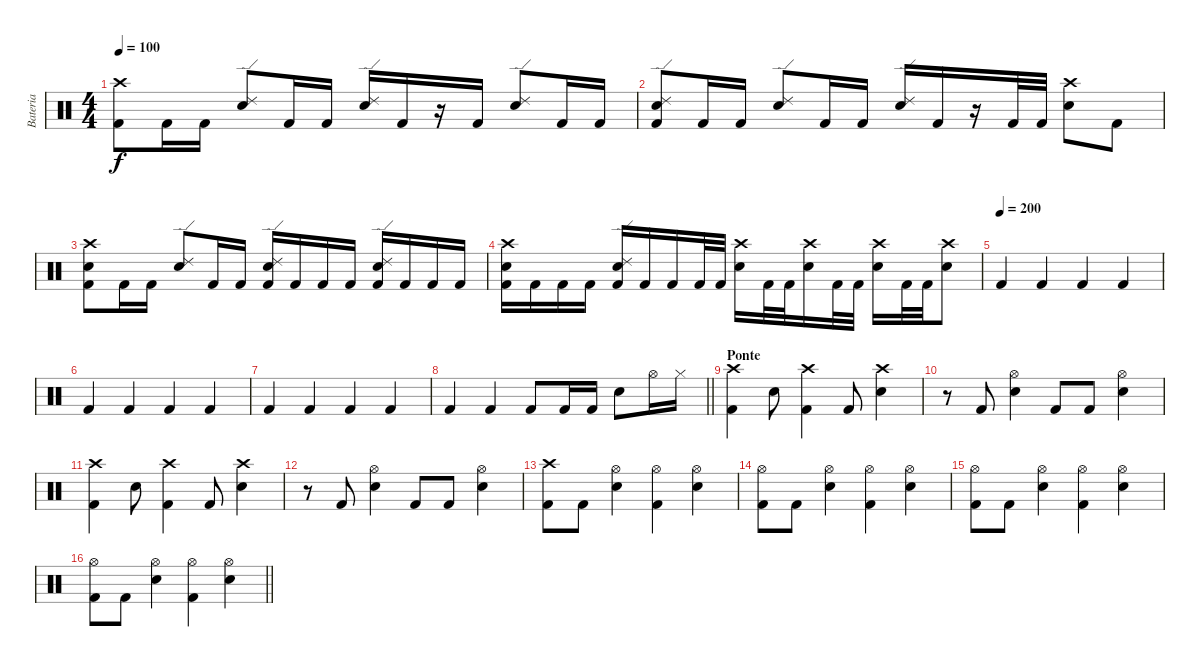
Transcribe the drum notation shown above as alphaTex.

\track ("Bateria" "Bateria") {instrument percussion}
\staff {score}
\articulation defaults
\ts (4 4)
\tempo 100
\clef neutral
\ks c
("Crash high (hit)" "Kick (hit) 2").8{dy f} "Kick (hit) 2".16 "Kick (hit) 2".16 ("Ride (edge) 2" "Electric Snare (hit)").8 "Kick (hit) 2".16 "Kick (hit) 2".16 ("Ride (edge) 2" "Electric Snare (hit)").16 "Kick (hit) 2".16 r.16 "Kick (hit) 2".16 ("Ride (edge) 2" "Electric Snare (hit)").8 "Kick (hit) 2".16 "Kick (hit) 2".16 |
("Ride (edge) 2" "Electric Snare (hit)" "Kick (hit) 2").8 "Kick (hit) 2".16 "Kick (hit) 2".16 ("Ride (edge) 2" "Electric Snare (hit)").8 "Kick (hit) 2".16 "Kick (hit) 2".16 ("Ride (edge) 2" "Electric Snare (hit)").16 "Kick (hit) 2".16 r.16 "Kick (hit) 2".32 "Kick (hit) 2".32 ("Crash high (hit)" "Electric Snare (hit)").8 "Kick (hit) 2".8 |
("Crash high (hit)" "Electric Snare (hit)" "Kick (hit) 2").8 "Kick (hit) 2".16 "Kick (hit) 2".16 ("Ride (edge) 2" "Electric Snare (hit)").8 "Kick (hit) 2".16 "Kick (hit) 2".16 ("Ride (edge) 2" "Electric Snare (hit)" "Kick (hit) 2").16 "Kick (hit) 2".16 "Kick (hit) 2".16 "Kick (hit) 2".16 ("Ride (edge) 2" "Electric Snare (hit)" "Kick (hit) 2").16 "Kick (hit) 2".16 "Kick (hit) 2".16 "Kick (hit) 2".16 |
("Crash high (hit)" "Electric Snare (hit)" "Kick (hit) 2").16 "Kick (hit) 2".16 "Kick (hit) 2".16 "Kick (hit) 2".16 ("Ride (edge) 2" "Electric Snare (hit)" "Kick (hit) 2").16 "Kick (hit) 2".16 "Kick (hit) 2".16 "Kick (hit) 2".32 "Kick (hit) 2".32 ("Crash high (hit)" "Electric Snare (hit)").16 "Kick (hit) 2".32 "Kick (hit) 2".32 ("Crash high (hit)" "Electric Snare (hit)").16 "Kick (hit) 2".32 "Kick (hit) 2".32 ("Crash high (hit)" "Electric Snare (hit)").16 "Kick (hit) 2".32 "Kick (hit) 2".32 ("Crash high (hit)" "Electric Snare (hit)").8 |
\tempo (200)
"Kick (hit) 2".4 "Kick (hit) 2".4 "Kick (hit) 2".4 "Kick (hit) 2".4 |
"Kick (hit) 2".4 "Kick (hit) 2".4 "Kick (hit) 2".4 "Kick (hit) 2".4 |
"Kick (hit) 2".4 "Kick (hit) 2".4 "Kick (hit) 2".4 "Kick (hit) 2".4 |
\barLineRight lightlight "Kick (hit) 2".4 "Kick (hit) 2".4 "Kick (hit) 2".8 "Kick (hit) 2".16 "Kick (hit) 2".16 "Electric Snare (hit)".8 "Hi-Hat (open)".16 "Hi-Hat (closed)".16
|
\section ("" "Ponte")
("Crash high (hit)" "Kick (hit) 2").4 "Electric Snare (hit)".8 ("Crash high (hit)" "Kick (hit) 2").4 "Kick (hit) 2".8 ("Crash high (hit)" "Electric Snare (hit)").4 |
r.8 "Kick (hit) 2".8 ("Hi-Hat (open)" "Electric Snare (hit)").4 "Kick (hit) 2".8 "Kick (hit) 2".8 ("Hi-Hat (open)" "Electric Snare (hit)").4 |
("Crash high (hit)" "Kick (hit) 2").4 "Electric Snare (hit)".8 ("Crash high (hit)" "Kick (hit) 2").4 "Kick (hit) 2".8 ("Crash high (hit)" "Electric Snare (hit)").4 |
r.8 "Kick (hit) 2".8 ("Hi-Hat (open)" "Electric Snare (hit)").4 "Kick (hit) 2".8 "Kick (hit) 2".8 ("Hi-Hat (open)" "Electric Snare (hit)").4 |
("Crash high (hit)" "Kick (hit) 2").8 "Kick (hit) 2".8 ("Hi-Hat (open)" "Electric Snare (hit)").4 ("Hi-Hat (open)" "Kick (hit) 2").4 ("Hi-Hat (open)" "Electric Snare (hit)").4 |
("Hi-Hat (open)" "Kick (hit) 2").8 "Kick (hit) 2".8 ("Hi-Hat (open)" "Electric Snare (hit)").4 ("Hi-Hat (open)" "Kick (hit) 2").4 ("Hi-Hat (open)" "Electric Snare (hit)").4 |
("Hi-Hat (open)" "Kick (hit) 2").8 "Kick (hit) 2".8 ("Hi-Hat (open)" "Electric Snare (hit)").4 ("Hi-Hat (open)" "Kick (hit) 2").4 ("Hi-Hat (open)" "Electric Snare (hit)").4 |
\barLineRight lightlight
("Hi-Hat (open)" "Kick (hit) 2").8 "Kick (hit) 2".8 ("Hi-Hat (open)" "Electric Snare (hit)").4 ("Hi-Hat (open)" "Kick (hit) 2").4 ("Hi-Hat (open)" "Electric Snare (hit)").4
